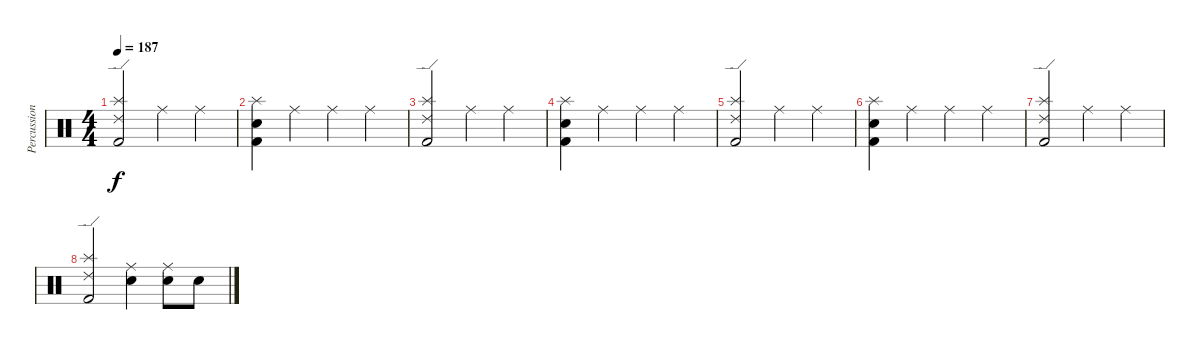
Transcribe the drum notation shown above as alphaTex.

\track ("Percussion" "Percussion") {instrument percussion}
\staff {score}
\articulation defaults
\ts (4 4)
\tempo 187
\clef neutral
\ks c
("Ride (edge) 2" "Splash (hit)" "Kick (hit) 2").2{dy f} "Ride (middle)".4 "Ride (middle)".4 |
("Electric Snare (hit)" "Splash (hit)" "Kick (hit) 2").4 "Ride (middle)".4 "Ride (middle)".4 "Ride (middle)".4 |
("Ride (edge) 2" "Splash (hit)" "Kick (hit) 2").2 "Ride (middle)".4 "Ride (middle)".4 |
("Electric Snare (hit)" "Splash (hit)" "Kick (hit) 2").4 "Ride (middle)".4 "Ride (middle)".4 "Ride (middle)".4 |
("Ride (edge) 2" "Splash (hit)" "Kick (hit) 2").2 "Ride (middle)".4 "Ride (middle)".4 |
("Electric Snare (hit)" "Splash (hit)" "Kick (hit) 2").4 "Ride (middle)".4 "Ride (middle)".4 "Ride (middle)".4 |
("Ride (edge) 2" "Splash (hit)" "Kick (hit) 2").2 "Ride (middle)".4 "Ride (middle)".4 |
("Ride (edge) 2" "Splash (hit)" "Kick (hit) 2").2 ("Ride (middle)" "Electric Snare (hit)").4 ("Ride (middle)" "Electric Snare (hit)").8 "Electric Snare (hit)".8
